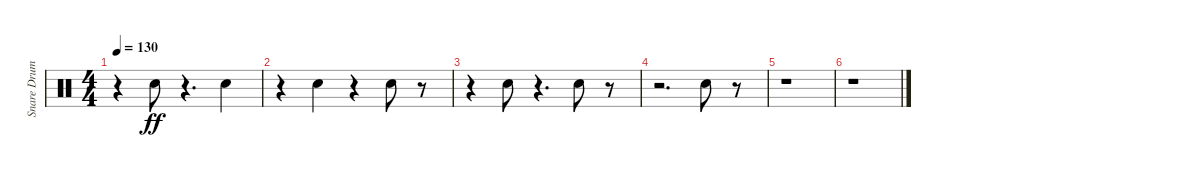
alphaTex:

\track ("Snare Drum" "Snare Drum") {instrument percussion}
\staff {score}
\articulation defaults
\ts (4 4)
\tempo 130
\clef neutral
\ks c
r.4{dy ff} "Electric Snare (hit)".8 r.4{d} "Electric Snare (hit)".4 |
r.4 "Electric Snare (hit)".4 r.4 "Electric Snare (hit)".8 r.8 |
r.4 "Electric Snare (hit)".8 r.4{d} "Electric Snare (hit)".8 r.8 |
r.2{d} "Electric Snare (hit)".8 r.8 |
r.1 |
r.1
